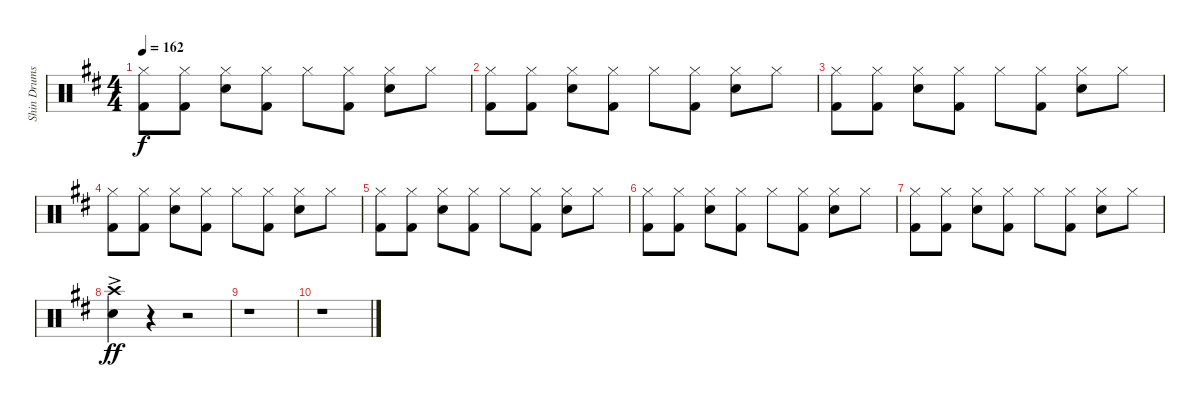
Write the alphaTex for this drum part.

\track ("Shin Drums" "Shin Drums") {instrument percussion}
\staff {score}
\articulation defaults
\ts (4 4)
\tempo 162
\clef neutral
\ks d
("Hi-Hat (closed)" "Kick (hit) 2").8{dy f} ("Hi-Hat (closed)" "Kick (hit) 2").8 ("Hi-Hat (closed)" "Snare (hit) 2").8 ("Hi-Hat (closed)" "Kick (hit) 2").8 "Hi-Hat (closed)".8 ("Hi-Hat (closed)" "Kick (hit) 2").8 ("Hi-Hat (closed)" "Snare (hit) 2").8 "Hi-Hat (closed)".8 |
("Hi-Hat (closed)" "Kick (hit) 2").8 ("Hi-Hat (closed)" "Kick (hit) 2").8 ("Hi-Hat (closed)" "Snare (hit) 2").8 ("Hi-Hat (closed)" "Kick (hit) 2").8 "Hi-Hat (closed)".8 ("Hi-Hat (closed)" "Kick (hit) 2").8 ("Hi-Hat (closed)" "Snare (hit) 2").8 "Hi-Hat (closed)".8 |
("Hi-Hat (closed)" "Kick (hit) 2").8 ("Hi-Hat (closed)" "Kick (hit) 2").8 ("Hi-Hat (closed)" "Snare (hit) 2").8 ("Hi-Hat (closed)" "Kick (hit) 2").8 "Hi-Hat (closed)".8 ("Hi-Hat (closed)" "Kick (hit) 2").8 ("Hi-Hat (closed)" "Snare (hit) 2").8 "Hi-Hat (closed)".8 |
("Hi-Hat (closed)" "Kick (hit) 2").8 ("Hi-Hat (closed)" "Kick (hit) 2").8 ("Hi-Hat (closed)" "Snare (hit) 2").8 ("Hi-Hat (closed)" "Kick (hit) 2").8 "Hi-Hat (closed)".8 ("Hi-Hat (closed)" "Kick (hit) 2").8 ("Hi-Hat (closed)" "Snare (hit) 2").8 "Hi-Hat (closed)".8 |
("Hi-Hat (closed)" "Kick (hit) 2").8 ("Hi-Hat (closed)" "Kick (hit) 2").8 ("Hi-Hat (closed)" "Snare (hit) 2").8 ("Hi-Hat (closed)" "Kick (hit) 2").8 "Hi-Hat (closed)".8 ("Hi-Hat (closed)" "Kick (hit) 2").8 ("Hi-Hat (closed)" "Snare (hit) 2").8 "Hi-Hat (closed)".8 |
("Hi-Hat (closed)" "Kick (hit) 2").8 ("Hi-Hat (closed)" "Kick (hit) 2").8 ("Hi-Hat (closed)" "Snare (hit) 2").8 ("Hi-Hat (closed)" "Kick (hit) 2").8 "Hi-Hat (closed)".8 ("Hi-Hat (closed)" "Kick (hit) 2").8 ("Hi-Hat (closed)" "Snare (hit) 2").8 "Hi-Hat (closed)".8 |
("Hi-Hat (closed)" "Kick (hit) 2").8 ("Hi-Hat (closed)" "Kick (hit) 2").8 ("Hi-Hat (closed)" "Snare (hit) 2").8 ("Hi-Hat (closed)" "Kick (hit) 2").8 "Hi-Hat (closed)".8 ("Hi-Hat (closed)" "Kick (hit) 2").8 ("Hi-Hat (closed)" "Snare (hit) 2").8 "Hi-Hat (closed)".8 |
("Crash high (hit)"{ac} "Snare (hit) 2").4{dy ff} r.4 r.2 |
r.1 |
r.1
